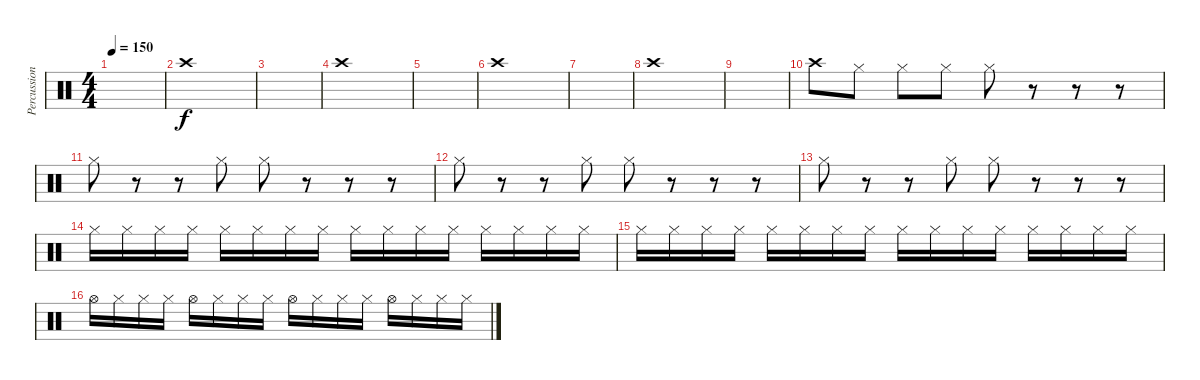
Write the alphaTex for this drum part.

\track ("Percussion" "Percussion") {instrument percussion}
\staff {score}
\articulation defaults
\ts (4 4)
\tempo 150
\clef neutral
\ks c
|
"Crash high (hit)".1 |
|
"Crash high (hit)".1 |
|
"Crash high (hit)".1 |
|
"Crash high (hit)".1 |
|
"Crash high (hit)".8 "Hi-Hat (closed)".8 "Hi-Hat (closed)".8 "Hi-Hat (closed)".8 "Hi-Hat (closed)".8 r.8 r.8 r.8 |
"Hi-Hat (closed)".8 r.8 r.8 "Hi-Hat (closed)".8 "Hi-Hat (closed)".8 r.8 r.8 r.8 |
"Hi-Hat (closed)".8 r.8 r.8 "Hi-Hat (closed)".8 "Hi-Hat (closed)".8 r.8 r.8 r.8 |
"Hi-Hat (closed)".8 r.8 r.8 "Hi-Hat (closed)".8 "Hi-Hat (closed)".8 r.8 r.8 r.8 |
"Hi-Hat (closed)".16 "Hi-Hat (closed)".16 "Hi-Hat (closed)".16 "Hi-Hat (closed)".16 "Hi-Hat (closed)".16 "Hi-Hat (closed)".16 "Hi-Hat (closed)".16 "Hi-Hat (closed)".16 "Hi-Hat (closed)".16 "Hi-Hat (closed)".16 "Hi-Hat (closed)".16 "Hi-Hat (closed)".16 "Hi-Hat (closed)".16 "Hi-Hat (closed)".16 "Hi-Hat (closed)".16 "Hi-Hat (closed)".16 |
"Hi-Hat (closed)".16 "Hi-Hat (closed)".16 "Hi-Hat (closed)".16 "Hi-Hat (closed)".16 "Hi-Hat (closed)".16 "Hi-Hat (closed)".16 "Hi-Hat (closed)".16 "Hi-Hat (closed)".16 "Hi-Hat (closed)".16 "Hi-Hat (closed)".16 "Hi-Hat (closed)".16 "Hi-Hat (closed)".16 "Hi-Hat (closed)".16 "Hi-Hat (closed)".16 "Hi-Hat (closed)".16 "Hi-Hat (closed)".16 |
"Hi-Hat (open)".16 "Hi-Hat (closed)".16 "Hi-Hat (closed)".16 "Hi-Hat (closed)".16 "Hi-Hat (open)".16 "Hi-Hat (closed)".16 "Hi-Hat (closed)".16 "Hi-Hat (closed)".16 "Hi-Hat (open)".16 "Hi-Hat (closed)".16 "Hi-Hat (closed)".16 "Hi-Hat (closed)".16 "Hi-Hat (open)".16 "Hi-Hat (closed)".16 "Hi-Hat (closed)".16 "Hi-Hat (closed)".16
